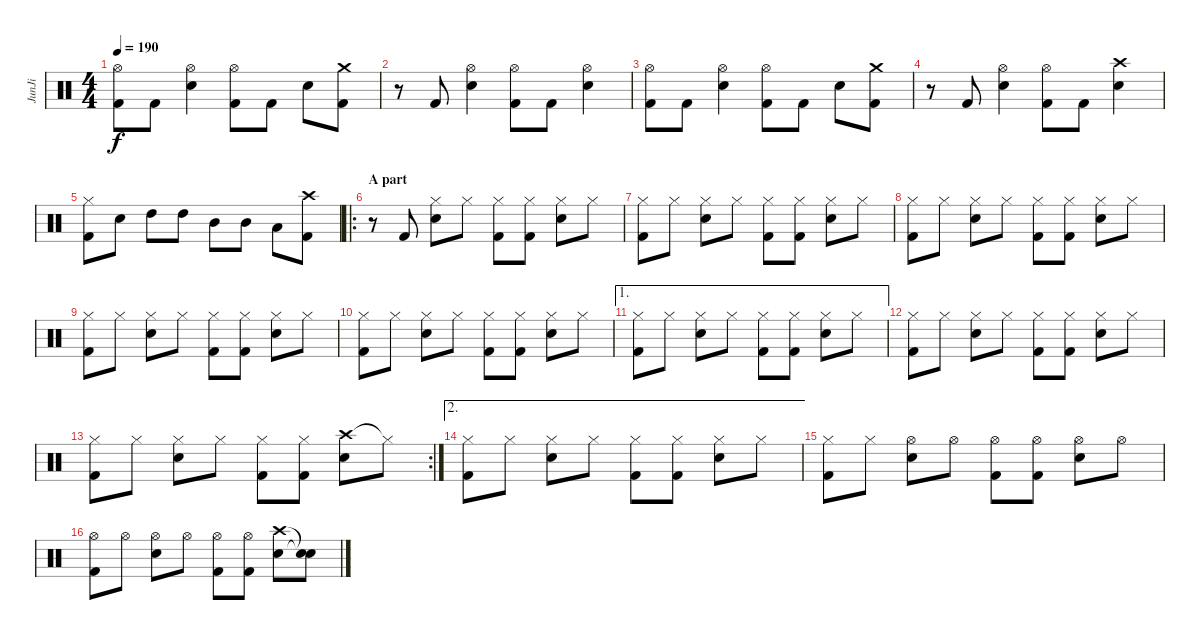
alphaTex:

\track ("JunJi" "JunJi") {instrument percussion}
\staff {score}
\articulation defaults
\ts (4 4)
\tempo 190
\clef neutral
\ks c
("Hi-Hat (open)" "Kick (hit) 2").8{dy f} "Kick (hit) 2".8 ("Hi-Hat (open)" "Snare (hit) 2").4 ("Hi-Hat (open)" "Kick (hit) 2").8 "Kick (hit) 2".8 "Snare (hit) 2".8 ("Crash medium (hit)" "Kick (hit) 2").8 |
r.8 "Kick (hit) 2".8 ("Hi-Hat (open)" "Snare (hit) 2").4 ("Hi-Hat (open)" "Kick (hit) 2").8 "Kick (hit) 2".8 ("Hi-Hat (open)" "Snare (hit) 2").4 |
("Hi-Hat (open)" "Kick (hit) 2").8 "Kick (hit) 2".8 ("Hi-Hat (open)" "Snare (hit) 2").4 ("Hi-Hat (open)" "Kick (hit) 2").8 "Kick (hit) 2".8 "Snare (hit) 2".8 ("Crash medium (hit)" "Kick (hit) 2").8 |
r.8 "Kick (hit) 2".8 ("Hi-Hat (open)" "Snare (hit) 2").4 ("Hi-Hat (open)" "Kick (hit) 2").8 "Kick (hit) 2".8 ("Crash high (hit)" "Snare (hit) 2").4 |
("Hi-Hat (closed)" "Kick (hit) 2").8 "Snare (hit) 2".8 "High Tom (hit)".8 "High Tom (hit)".8 "Mid Tom (hit)".8 "Mid Tom (hit)".8 "Low Tom (hit)".8 ("Crash high (hit)" "Kick (hit) 2").8 |
\ro
\section ("" "A part")
r.8 "Kick (hit) 2".8 ("Hi-Hat (closed)" "Snare (hit) 2").8 "Hi-Hat (closed)".8 ("Hi-Hat (closed)" "Kick (hit) 2").8 ("Hi-Hat (closed)" "Kick (hit) 2").8 ("Hi-Hat (closed)" "Snare (hit) 2").8 "Hi-Hat (closed)".8 |
("Hi-Hat (closed)" "Kick (hit) 2").8 "Hi-Hat (closed)".8 ("Hi-Hat (closed)" "Snare (hit) 2").8 "Hi-Hat (closed)".8 ("Hi-Hat (closed)" "Kick (hit) 2").8 ("Hi-Hat (closed)" "Kick (hit) 2").8 ("Hi-Hat (closed)" "Snare (hit) 2").8 "Hi-Hat (closed)".8 |
("Hi-Hat (closed)" "Kick (hit) 2").8 "Hi-Hat (closed)".8 ("Hi-Hat (closed)" "Snare (hit) 2").8 "Hi-Hat (closed)".8 ("Hi-Hat (closed)" "Kick (hit) 2").8 ("Hi-Hat (closed)" "Kick (hit) 2").8 ("Hi-Hat (closed)" "Snare (hit) 2").8 "Hi-Hat (closed)".8 |
("Hi-Hat (closed)" "Kick (hit) 2").8 "Hi-Hat (closed)".8 ("Hi-Hat (closed)" "Snare (hit) 2").8 "Hi-Hat (closed)".8 ("Hi-Hat (closed)" "Kick (hit) 2").8 ("Hi-Hat (closed)" "Kick (hit) 2").8 ("Hi-Hat (closed)" "Snare (hit) 2").8 "Hi-Hat (closed)".8 |
("Hi-Hat (closed)" "Kick (hit) 2").8 "Hi-Hat (closed)".8 ("Hi-Hat (closed)" "Snare (hit) 2").8 "Hi-Hat (closed)".8 ("Hi-Hat (closed)" "Kick (hit) 2").8 ("Hi-Hat (closed)" "Kick (hit) 2").8 ("Hi-Hat (closed)" "Snare (hit) 2").8 "Hi-Hat (closed)".8 |
\ae 1
("Hi-Hat (closed)" "Kick (hit) 2").8 "Hi-Hat (closed)".8 ("Hi-Hat (closed)" "Snare (hit) 2").8 "Hi-Hat (closed)".8 ("Hi-Hat (closed)" "Kick (hit) 2").8 ("Hi-Hat (closed)" "Kick (hit) 2").8 ("Hi-Hat (closed)" "Snare (hit) 2").8 "Hi-Hat (closed)".8 |
("Hi-Hat (closed)" "Kick (hit) 2").8 "Hi-Hat (closed)".8 ("Hi-Hat (closed)" "Snare (hit) 2").8 "Hi-Hat (closed)".8 ("Hi-Hat (closed)" "Kick (hit) 2").8 ("Hi-Hat (closed)" "Kick (hit) 2").8 ("Hi-Hat (closed)" "Snare (hit) 2").8 "Hi-Hat (closed)".8 |
\rc 2
("Hi-Hat (closed)" "Kick (hit) 2").8 "Hi-Hat (closed)".8 ("Hi-Hat (closed)" "Snare (hit) 2").8 "Hi-Hat (closed)".8 ("Hi-Hat (closed)" "Kick (hit) 2").8 ("Hi-Hat (closed)" "Kick (hit) 2").8 ("Crash high (hit)" "Snare (hit) 2").8 "Hi-Hat (closed)"{t}.8 |
\ae 2
("Hi-Hat (closed)" "Kick (hit) 2").8 "Hi-Hat (closed)".8 ("Hi-Hat (closed)" "Snare (hit) 2").8 "Hi-Hat (closed)".8 ("Hi-Hat (closed)" "Kick (hit) 2").8 ("Hi-Hat (closed)" "Kick (hit) 2").8 ("Hi-Hat (closed)" "Snare (hit) 2").8 "Hi-Hat (closed)".8 |
("Hi-Hat (closed)" "Kick (hit) 2").8 "Hi-Hat (closed)".8 ("Hi-Hat (open)" "Snare (hit) 2").8 "Hi-Hat (open)".8 ("Hi-Hat (open)" "Kick (hit) 2").8 ("Hi-Hat (open)" "Kick (hit) 2").8 ("Hi-Hat (open)" "Snare (hit) 2").8 "Hi-Hat (open)".8 |
("Hi-Hat (open)" "Kick (hit) 2").8 "Hi-Hat (open)".8 ("Hi-Hat (open)" "Snare (hit) 2").8 "Hi-Hat (open)".8 ("Hi-Hat (open)" "Kick (hit) 2").8 ("Hi-Hat (open)" "Kick (hit) 2").8 ("Crash high (hit)" "Snare (hit) 2").8 ("Snare (hit)"{t} "Snare (hit)"{t}).8
